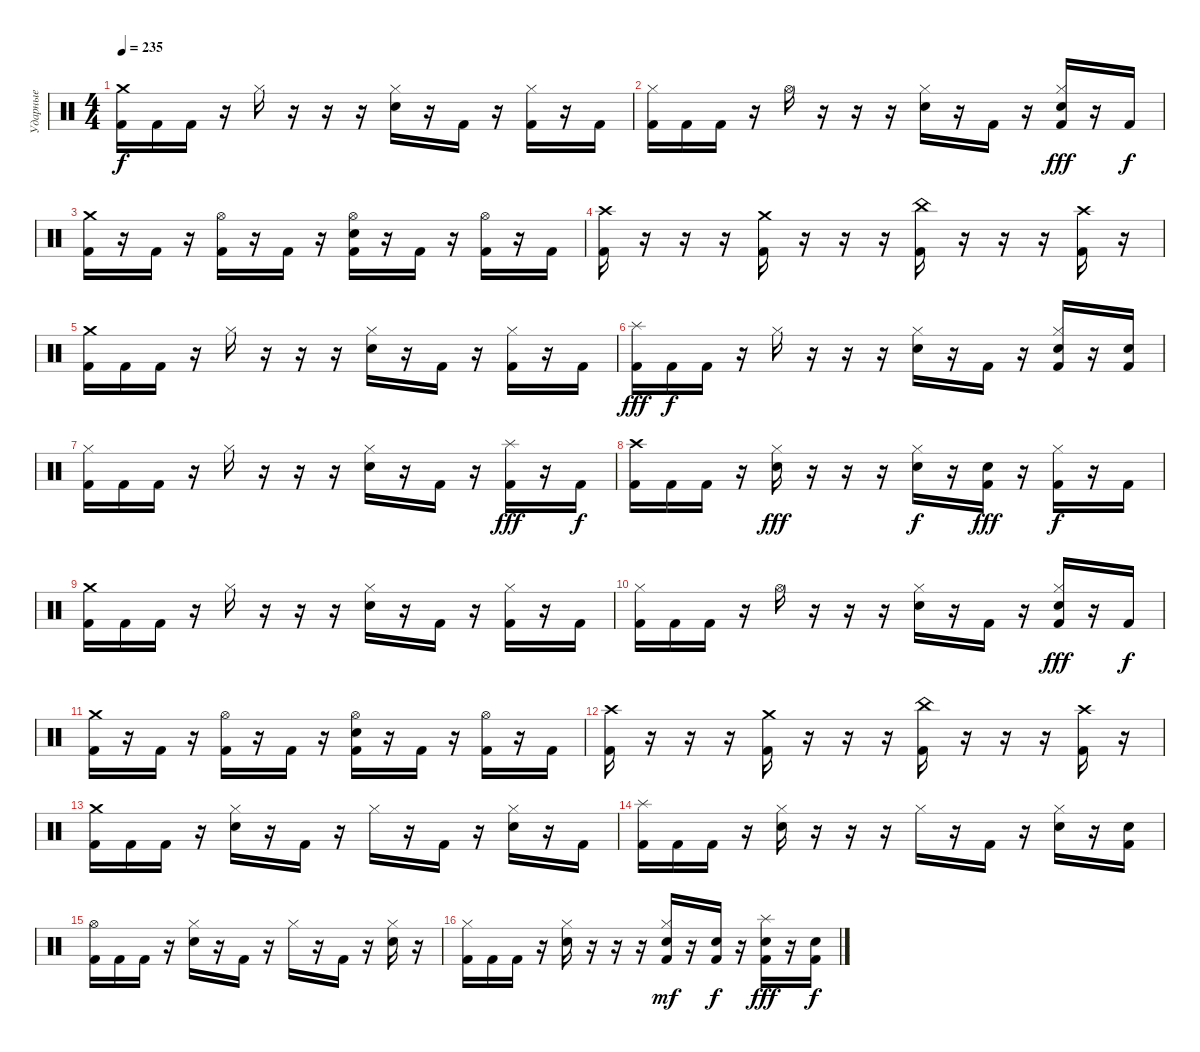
\track ("Ударные" "Ударные") {instrument percussion}
\staff {score}
\articulation defaults
\ts (4 4)
\tempo 235
\clef neutral
\ks c
("Crash medium (hit)" "Kick (hit) 2").16{dy f} "Kick (hit) 2".16 "Kick (hit) 2".16 r.16 "Hi-Hat (closed)".16 r.16 r.16 r.16 ("Hi-Hat (closed)" "Snare (hit) 2").16 r.16 "Kick (hit) 2".16 r.16 ("Hi-Hat (closed)" "Kick (hit) 2").16 r.16 "Kick (hit) 2".16 |
("Hi-Hat (closed)" "Kick (hit) 2").16 "Kick (hit) 2".16 "Kick (hit) 2".16 r.16 "Hi-Hat (open)".16 r.16 r.16 r.16 ("Hi-Hat (closed)" "Snare (hit) 2").16 r.16 "Kick (hit) 2".16 r.16 ("Hi-Hat (closed)" "Snare (hit) 2" "Kick (hit) 2").16{dy fff} r.16 "Kick (hit) 2".16{dy f} |
("Crash medium (hit)" "Kick (hit) 2").16 r.16 "Kick (hit) 2".16 r.16 ("Hi-Hat (open)" "Kick (hit) 2").16 r.16 "Kick (hit) 2".16 r.16 ("Hi-Hat (open)" "Snare (hit) 2" "Kick (hit) 2").16 r.16 "Kick (hit) 2".16 r.16 ("Hi-Hat (open)" "Kick (hit) 2").16 r.16 "Kick (hit) 2".16 |
("Crash high (hit)" "Kick (hit) 2").16 r.16 r.16 r.16 ("Crash medium (hit)" "Kick (hit) 2").16 r.16 r.16 r.16 ("China (hit)" "Kick (hit) 2").16 r.16 r.16 r.16 ("Crash high (hit)" "Kick (hit) 2").16 r.16 |
("Crash medium (hit)" "Kick (hit) 2").16 "Kick (hit) 2".16 "Kick (hit) 2".16 r.16 "Hi-Hat (closed)".16 r.16 r.16 r.16 ("Hi-Hat (closed)" "Snare (hit) 2").16 r.16 "Kick (hit) 2".16 r.16 ("Hi-Hat (closed)" "Kick (hit) 2").16 r.16 "Kick (hit) 2".16 |
("Splash (hit)" "Kick (hit) 2").16{dy fff} "Kick (hit) 2".16{dy f} "Kick (hit) 2".16 r.16 "Hi-Hat (closed)".16 r.16 r.16 r.16 ("Hi-Hat (closed)" "Snare (hit) 2").16 r.16 "Kick (hit) 2".16 r.16 ("Hi-Hat (closed)" "Snare (hit) 2" "Kick (hit) 2").16 r.16 ("Snare (hit) 2" "Kick (hit) 2").16 |
("Hi-Hat (closed)" "Kick (hit) 2").16 "Kick (hit) 2".16 "Kick (hit) 2".16 r.16 "Hi-Hat (closed)".16 r.16 r.16 r.16 ("Hi-Hat (closed)" "Snare (hit) 2").16 r.16 "Kick (hit) 2".16 r.16 ("Splash (hit)" "Kick (hit) 2").16{dy fff} r.16 "Kick (hit) 2".16{dy f} |
("Crash high (hit)" "Kick (hit) 2").16 "Kick (hit) 2".16 "Kick (hit) 2".16 r.16 ("Hi-Hat (closed)" "Snare (hit) 2").16{dy fff} r.16 r.16 r.16 ("Hi-Hat (closed)" "Snare (hit) 2").16{dy f} r.16 ("Snare (hit) 2" "Kick (hit) 2").16{dy fff} r.16 ("Hi-Hat (closed)" "Kick (hit) 2").16{dy f} r.16 "Kick (hit) 2".16 |
("Crash medium (hit)" "Kick (hit) 2").16 "Kick (hit) 2".16 "Kick (hit) 2".16 r.16 "Hi-Hat (closed)".16 r.16 r.16 r.16 ("Hi-Hat (closed)" "Snare (hit) 2").16 r.16 "Kick (hit) 2".16 r.16 ("Hi-Hat (closed)" "Kick (hit) 2").16 r.16 "Kick (hit) 2".16 |
("Hi-Hat (closed)" "Kick (hit) 2").16 "Kick (hit) 2".16 "Kick (hit) 2".16 r.16 "Hi-Hat (open)".16 r.16 r.16 r.16 ("Hi-Hat (closed)" "Snare (hit) 2").16 r.16 "Kick (hit) 2".16 r.16 ("Hi-Hat (closed)" "Snare (hit) 2" "Kick (hit) 2").16{dy fff} r.16 "Kick (hit) 2".16{dy f} |
("Crash medium (hit)" "Kick (hit) 2").16 r.16 "Kick (hit) 2".16 r.16 ("Hi-Hat (open)" "Kick (hit) 2").16 r.16 "Kick (hit) 2".16 r.16 ("Hi-Hat (open)" "Snare (hit) 2" "Kick (hit) 2").16 r.16 "Kick (hit) 2".16 r.16 ("Hi-Hat (open)" "Kick (hit) 2").16 r.16 "Kick (hit) 2".16 |
("Crash high (hit)" "Kick (hit) 2").16 r.16 r.16 r.16 ("Crash medium (hit)" "Kick (hit) 2").16 r.16 r.16 r.16 ("China (hit)" "Kick (hit) 2").16 r.16 r.16 r.16 ("Crash high (hit)" "Kick (hit) 2").16 r.16 |
("Crash medium (hit)" "Kick (hit) 2").16 "Kick (hit) 2".16 "Kick (hit) 2".16 r.16 ("Hi-Hat (closed)" "Snare (hit) 2").16 r.16 "Kick (hit) 2".16 r.16 "Hi-Hat (closed)".16 r.16 "Kick (hit) 2".16 r.16 ("Hi-Hat (closed)" "Snare (hit) 2").16 r.16 "Kick (hit) 2".16 |
("Splash (hit)" "Kick (hit) 2").16 "Kick (hit) 2".16 "Kick (hit) 2".16 r.16 ("Hi-Hat (closed)" "Snare (hit) 2").16 r.16 r.16 r.16 "Hi-Hat (closed)".16 r.16 "Kick (hit) 2".16 r.16 ("Hi-Hat (closed)" "Snare (hit) 2").16 r.16 ("Snare (hit) 2" "Kick (hit) 2").16 |
("Hi-Hat (open)" "Kick (hit) 2").16 "Kick (hit) 2".16 "Kick (hit) 2".16 r.16 ("Hi-Hat (closed)" "Snare (hit) 2").16 r.16 "Kick (hit) 2".16 r.16 "Hi-Hat (closed)".16 r.16 "Kick (hit) 2".16 r.16 ("Hi-Hat (closed)" "Snare (hit) 2").16 r.16 |
("Hi-Hat (closed)" "Kick (hit) 2").16 "Kick (hit) 2".16 "Kick (hit) 2".16 r.16 ("Hi-Hat (closed)" "Snare (hit) 2").16 r.16 r.16 r.16 ("Hi-Hat (closed)" "Snare (hit) 2" "Kick (hit) 2").16{dy mf} r.16 ("Snare (hit) 2" "Kick (hit) 2").16{dy f} r.16 ("Splash (hit)" "Snare (hit) 2" "Kick (hit) 2").16{dy fff} r.16 ("Snare (hit) 2" "Kick (hit) 2").16{dy f}
